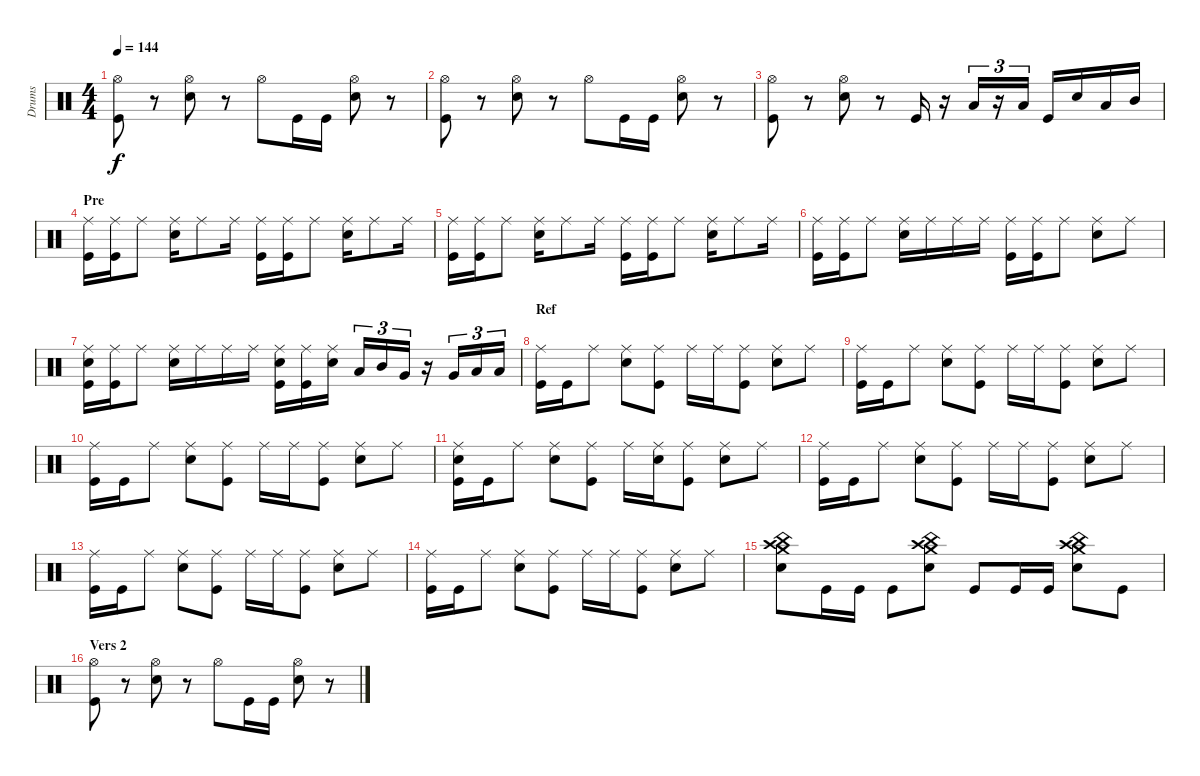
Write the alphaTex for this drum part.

\track ("Drums" "Drums") {instrument percussion}
\staff {score}
\articulation defaults
\ts (4 4)
\tempo 144
\clef neutral
\ks c
("Hi-Hat (open)" "Kick (hit)").8{dy f} r.8 ("Hi-Hat (open)" "Snare (hit) 2").8 r.8 "Hi-Hat (open)".8 "Kick (hit)".16 "Kick (hit)".16 ("Hi-Hat (open)" "Snare (hit) 2").8 r.8 |
("Hi-Hat (open)" "Kick (hit)").8 r.8 ("Hi-Hat (open)" "Snare (hit) 2").8 r.8 "Hi-Hat (open)".8 "Kick (hit)".16 "Kick (hit)".16 ("Hi-Hat (open)" "Snare (hit) 2").8 r.8 |
("Hi-Hat (open)" "Kick (hit)").8 r.8 ("Hi-Hat (open)" "Snare (hit) 2").8 r.8 "Kick (hit)".16 r.16 "Low Tom (hit)".16{tu (3 2)} r.16{tu (3 2)} "Low Floor Tom (hit)".16{tu (3 2)} "Kick (hit)".16 "Snare (hit) 2".16 "Low Tom (hit)".16 "Mid Tom (hit)".16 |
\section ("" "Pre")
("Ride (middle)" "Kick (hit)").16 ("Ride (middle)" "Kick (hit)").16 "Ride (middle)".8 ("Ride (middle)" "Snare (hit) 2").16 "Ride (middle)".8 "Ride (middle)".16 ("Ride (middle)" "Kick (hit)").16 ("Ride (middle)" "Kick (hit)").16 "Ride (middle)".8 ("Ride (middle)" "Snare (hit) 2").16 "Ride (middle)".8 "Ride (middle)".16 |
("Ride (middle)" "Kick (hit)").16 ("Ride (middle)" "Kick (hit)").16 "Ride (middle)".8 ("Ride (middle)" "Snare (hit) 2").16 "Ride (middle)".8 "Ride (middle)".16 ("Ride (middle)" "Kick (hit)").16 ("Ride (middle)" "Kick (hit)").16 "Ride (middle)".8 ("Ride (middle)" "Snare (hit) 2").16 "Ride (middle)".8 "Ride (middle)".16 |
("Ride (middle)" "Kick (hit)").16 ("Ride (middle)" "Kick (hit)").16 "Ride (middle)".8 ("Ride (middle)" "Snare (hit) 2").16 "Ride (middle)".16 "Ride (middle)".16 "Ride (middle)".16 ("Ride (middle)" "Kick (hit)").16 ("Ride (middle)" "Kick (hit)").16 "Ride (middle)".8 ("Ride (middle)" "Snare (hit) 2").8 "Ride (middle)".8 |
("Ride (middle)" "Snare (hit) 2" "Kick (hit)").16 ("Ride (middle)" "Kick (hit)").16 "Ride (middle)".8 ("Ride (middle)" "Snare (hit) 2").16 "Ride (middle)".16 "Ride (middle)".16 "Ride (middle)".16 ("Ride (middle)" "Snare (hit) 2" "Kick (hit)").16 ("Ride (middle)" "Kick (hit)").16 ("Ride (middle)" "Snare (hit) 2").16 "Low Tom (hit)".16{tu (3 2)} "Mid Tom (hit)".16{tu (3 2)} "Very Low Tom (hit)".16{tu (3 2)} r.16 "Very Low Tom (hit)".16{tu (3 2)} "Low Tom (hit)".16{tu (3 2)} "Low Floor Tom (hit)".16{tu (3 2)} |
\section ("" "Ref")
("Ride (middle)" "Kick (hit)").16 "Kick (hit)".16 "Ride (middle)".8 ("Ride (middle)" "Snare (hit) 2").8 ("Ride (middle)" "Kick (hit)").8 "Ride (middle)".16 "Ride (middle)".16 ("Ride (middle)" "Kick (hit)").8 ("Ride (middle)" "Snare (hit) 2").8 "Ride (middle)".8 |
("Ride (middle)" "Kick (hit)").16 "Kick (hit)".16 "Ride (middle)".8 ("Ride (middle)" "Snare (hit) 2").8 ("Ride (middle)" "Kick (hit)").8 "Ride (middle)".16 "Ride (middle)".16 ("Ride (middle)" "Kick (hit)").8 ("Ride (middle)" "Snare (hit) 2").8 "Ride (middle)".8 |
("Ride (middle)" "Kick (hit)").16 "Kick (hit)".16 "Ride (middle)".8 ("Ride (middle)" "Snare (hit) 2").8 ("Ride (middle)" "Kick (hit)").8 "Ride (middle)".16 "Ride (middle)".16 ("Ride (middle)" "Kick (hit)").8 ("Ride (middle)" "Snare (hit) 2").8 "Ride (middle)".8 |
("Ride (middle)" "Snare (hit) 2" "Kick (hit)").16 "Kick (hit)".16 "Ride (middle)".8 ("Ride (middle)" "Snare (hit) 2").8 ("Ride (middle)" "Kick (hit)").8 "Ride (middle)".16 ("Ride (middle)" "Snare (hit) 2").16 ("Ride (middle)" "Kick (hit)").8 ("Ride (middle)" "Snare (hit) 2").8 "Ride (middle)".8 |
("Ride (middle)" "Kick (hit)").16 "Kick (hit)".16 "Ride (middle)".8 ("Ride (middle)" "Snare (hit) 2").8 ("Ride (middle)" "Kick (hit)").8 "Ride (middle)".16 "Ride (middle)".16 ("Ride (middle)" "Kick (hit)").8 ("Ride (middle)" "Snare (hit) 2").8 "Ride (middle)".8 |
("Ride (middle)" "Kick (hit)").16 "Kick (hit)".16 "Ride (middle)".8 ("Ride (middle)" "Snare (hit) 2").8 ("Ride (middle)" "Kick (hit)").8 "Ride (middle)".16 "Ride (middle)".16 ("Ride (middle)" "Kick (hit)").8 ("Ride (middle)" "Snare (hit) 2").8 "Ride (middle)".8 |
("Ride (middle)" "Kick (hit)").16 "Kick (hit)".16 "Ride (middle)".8 ("Ride (middle)" "Snare (hit) 2").8 ("Ride (middle)" "Kick (hit)").8 "Ride (middle)".16 "Ride (middle)".16 ("Ride (middle)" "Kick (hit)").8 ("Ride (middle)" "Snare (hit) 2").8 "Ride (middle)".8 |
("China (hit)" "Crash medium (hit)" "Crash high (hit)" "Snare (hit) 2").8 "Kick (hit)".16 "Kick (hit)".16 "Kick (hit)".8 ("China (hit)" "Crash medium (hit)" "Crash high (hit)" "Snare (hit) 2").8 "Kick (hit)".8 "Kick (hit)".16 "Kick (hit)".16 ("China (hit)" "Crash medium (hit)" "Crash high (hit)" "Snare (hit) 2").8 "Kick (hit)".8 |
\section ("" "Vers 2")
("Hi-Hat (open)" "Kick (hit)").8 r.8 ("Hi-Hat (open)" "Snare (hit) 2").8 r.8 "Hi-Hat (open)".8 "Kick (hit)".16 "Kick (hit)".16 ("Hi-Hat (open)" "Snare (hit) 2").8 r.8
